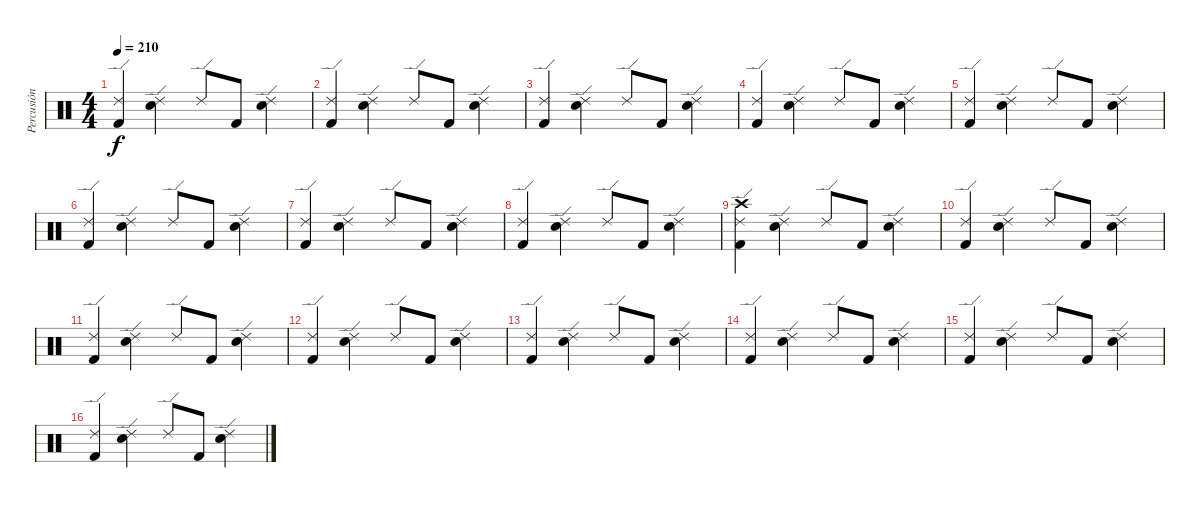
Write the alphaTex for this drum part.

\track ("Percusión" "Percusión") {instrument percussion}
\staff {score}
\articulation defaults
\ts (4 4)
\tempo 210
\clef neutral
\ks c
("Ride (edge) 2" "Kick (hit) 2").4{dy f} ("Ride (edge) 2" "Snare (hit) 2").4 "Ride (edge) 2".8 "Kick (hit) 2".8 ("Ride (edge) 2" "Snare (hit) 2").4 |
("Ride (edge) 2" "Kick (hit) 2").4 ("Ride (edge) 2" "Snare (hit) 2").4 "Ride (edge) 2".8 "Kick (hit) 2".8 ("Ride (edge) 2" "Snare (hit) 2").4 |
("Ride (edge) 2" "Kick (hit) 2").4 ("Ride (edge) 2" "Snare (hit) 2").4 "Ride (edge) 2".8 "Kick (hit) 2".8 ("Ride (edge) 2" "Snare (hit) 2").4 |
("Ride (edge) 2" "Kick (hit) 2").4 ("Ride (edge) 2" "Snare (hit) 2").4 "Ride (edge) 2".8 "Kick (hit) 2".8 ("Ride (edge) 2" "Snare (hit) 2").4 |
("Ride (edge) 2" "Kick (hit) 2").4 ("Ride (edge) 2" "Snare (hit) 2").4 "Ride (edge) 2".8 "Kick (hit) 2".8 ("Ride (edge) 2" "Snare (hit) 2").4 |
("Ride (edge) 2" "Kick (hit) 2").4 ("Ride (edge) 2" "Snare (hit) 2").4 "Ride (edge) 2".8 "Kick (hit) 2".8 ("Ride (edge) 2" "Snare (hit) 2").4 |
("Ride (edge) 2" "Kick (hit) 2").4 ("Ride (edge) 2" "Snare (hit) 2").4 "Ride (edge) 2".8 "Kick (hit) 2".8 ("Ride (edge) 2" "Snare (hit) 2").4 |
("Ride (edge) 2" "Kick (hit) 2").4 ("Ride (edge) 2" "Snare (hit) 2").4 "Ride (edge) 2".8 "Kick (hit) 2".8 ("Ride (edge) 2" "Snare (hit) 2").4 |
("Crash high (hit)" "Ride (edge) 2" "Kick (hit) 2").4 ("Ride (edge) 2" "Snare (hit) 2").4 "Ride (edge) 2".8 "Kick (hit) 2".8 ("Ride (edge) 2" "Snare (hit) 2").4 |
("Ride (edge) 2" "Kick (hit) 2").4 ("Ride (edge) 2" "Snare (hit) 2").4 "Ride (edge) 2".8 "Kick (hit) 2".8 ("Ride (edge) 2" "Snare (hit) 2").4 |
("Ride (edge) 2" "Kick (hit) 2").4 ("Ride (edge) 2" "Snare (hit) 2").4 "Ride (edge) 2".8 "Kick (hit) 2".8 ("Ride (edge) 2" "Snare (hit) 2").4 |
("Ride (edge) 2" "Kick (hit) 2").4 ("Ride (edge) 2" "Snare (hit) 2").4 "Ride (edge) 2".8 "Kick (hit) 2".8 ("Ride (edge) 2" "Snare (hit) 2").4 |
("Ride (edge) 2" "Kick (hit) 2").4 ("Ride (edge) 2" "Snare (hit) 2").4 "Ride (edge) 2".8 "Kick (hit) 2".8 ("Ride (edge) 2" "Snare (hit) 2").4 |
("Ride (edge) 2" "Kick (hit) 2").4 ("Ride (edge) 2" "Snare (hit) 2").4 "Ride (edge) 2".8 "Kick (hit) 2".8 ("Ride (edge) 2" "Snare (hit) 2").4 |
("Ride (edge) 2" "Kick (hit) 2").4 ("Ride (edge) 2" "Snare (hit) 2").4 "Ride (edge) 2".8 "Kick (hit) 2".8 ("Ride (edge) 2" "Snare (hit) 2").4 |
("Ride (edge) 2" "Kick (hit) 2").4 ("Ride (edge) 2" "Snare (hit) 2").4 "Ride (edge) 2".8 "Kick (hit) 2".8 ("Ride (edge) 2" "Snare (hit) 2").4
